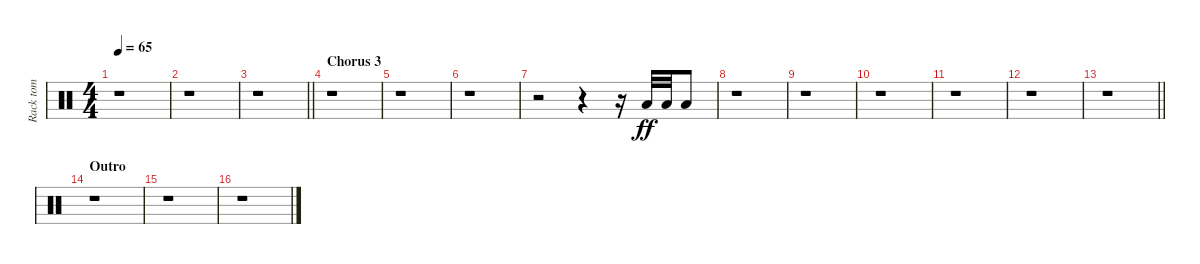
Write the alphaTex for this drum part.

\track ("Rack tom" "Rack tom") {instrument percussion}
\staff {score}
\articulation defaults
\ts (4 4)
\tempo 65
\clef neutral
\ks c
r.1{dy ff} |
r.1 |
\barLineRight lightlight
r.1 |
\section ("" "Chorus 3")
r.1 |
r.1 |
r.1 |
r.2 r.4 r.16 "Low Tom (hit)".32 "Low Tom (hit)".32 "Low Tom (hit)".8 |
r.1 |
r.1 |
r.1 |
r.1 |
r.1 |
\barLineRight lightlight
r.1 |
\section ("" "Outro")
r.1 |
r.1 |
r.1
